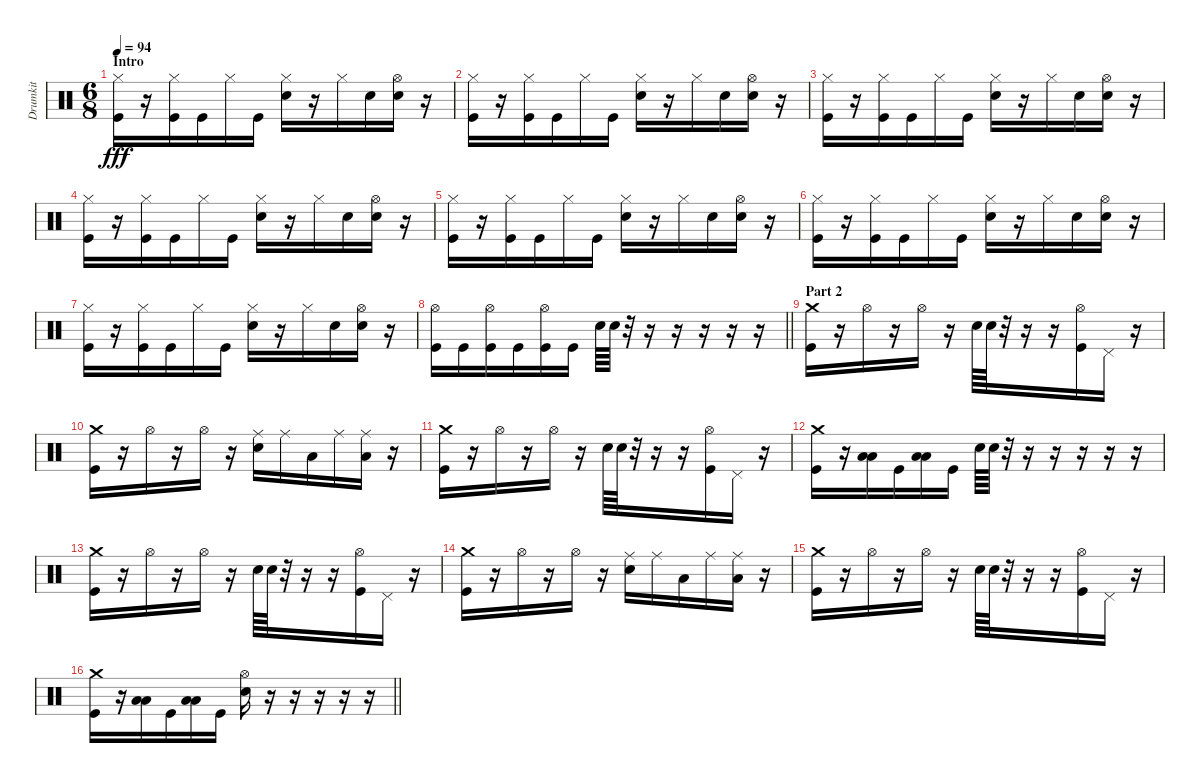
\track ("Drumkit" "Drumkit") {instrument percussion}
\staff {score}
\articulation defaults
\ts (6 8)
\section ("" "Intro")
\tempo 94
\clef neutral
\ks c
("Hi-Hat (closed)" "Kick (hit)").16{dy fff} r.16 ("Hi-Hat (closed)" "Kick (hit)").16 "Kick (hit)".16 "Hi-Hat (closed)".16 "Kick (hit)".16 ("Hi-Hat (closed)" "Snare (hit) 2").16 r.16 "Hi-Hat (closed)".16 "Snare (hit) 2".16 ("Hi-Hat (open)" "Snare (hit) 2").16 r.16 |
("Hi-Hat (closed)" "Kick (hit)").16 r.16 ("Hi-Hat (closed)" "Kick (hit)").16 "Kick (hit)".16 "Hi-Hat (closed)".16 "Kick (hit)".16 ("Hi-Hat (closed)" "Snare (hit) 2").16 r.16 "Hi-Hat (closed)".16 "Snare (hit) 2".16 ("Hi-Hat (open)" "Snare (hit) 2").16 r.16 |
("Hi-Hat (closed)" "Kick (hit)").16 r.16 ("Hi-Hat (closed)" "Kick (hit)").16 "Kick (hit)".16 "Hi-Hat (closed)".16 "Kick (hit)".16 ("Hi-Hat (closed)" "Snare (hit) 2").16 r.16 "Hi-Hat (closed)".16 "Snare (hit) 2".16 ("Hi-Hat (open)" "Snare (hit) 2").16 r.16 |
("Hi-Hat (closed)" "Kick (hit)").16 r.16 ("Hi-Hat (closed)" "Kick (hit)").16 "Kick (hit)".16 "Hi-Hat (closed)".16 "Kick (hit)".16 ("Hi-Hat (closed)" "Snare (hit) 2").16 r.16 "Hi-Hat (closed)".16 "Snare (hit) 2".16 ("Hi-Hat (open)" "Snare (hit) 2").16 r.16 |
("Hi-Hat (closed)" "Kick (hit)").16 r.16 ("Hi-Hat (closed)" "Kick (hit)").16 "Kick (hit)".16 "Hi-Hat (closed)".16 "Kick (hit)".16 ("Hi-Hat (closed)" "Snare (hit) 2").16 r.16 "Hi-Hat (closed)".16 "Snare (hit) 2".16 ("Hi-Hat (open)" "Snare (hit) 2").16 r.16 |
("Hi-Hat (closed)" "Kick (hit)").16 r.16 ("Hi-Hat (closed)" "Kick (hit)").16 "Kick (hit)".16 "Hi-Hat (closed)".16 "Kick (hit)".16 ("Hi-Hat (closed)" "Snare (hit) 2").16 r.16 "Hi-Hat (closed)".16 "Snare (hit) 2".16 ("Hi-Hat (open)" "Snare (hit) 2").16 r.16 |
("Hi-Hat (closed)" "Kick (hit)").16 r.16 ("Hi-Hat (closed)" "Kick (hit)").16 "Kick (hit)".16 "Hi-Hat (closed)".16 "Kick (hit)".16 ("Hi-Hat (closed)" "Snare (hit) 2").16 r.16 "Hi-Hat (closed)".16 "Snare (hit) 2".16 ("Hi-Hat (open)" "Snare (hit) 2").16 r.16 |
\barLineRight lightlight
("Hi-Hat (open)" "Kick (hit)").16 "Kick (hit)".16 ("Hi-Hat (open)" "Kick (hit)").16 "Kick (hit)".16 ("Hi-Hat (open)" "Kick (hit)").16 "Kick (hit)".16 "Snare (hit) 2".64 "Snare (hit) 2".64 r.32 r.16 r.16 r.16 r.16 r.16 |
\section ("" "Part 2")
("Crash medium (hit)" "Kick (hit)").16 r.16 "Hi-Hat (open)".16 r.16 "Hi-Hat (open)".16 r.16 "Snare (hit) 2".64 "Snare (hit) 2".64 r.32 r.16 r.16 ("Hi-Hat (open)" "Kick (hit)").16 "Pedal Hi-Hat (hit)".16 r.16 |
("Crash medium (hit)" "Kick (hit)").16 r.16 "Hi-Hat (open)".16 r.16 "Hi-Hat (open)".16 r.16 ("Ride (middle)" "Snare (hit) 2").16 "Ride (middle)".16 "Low Tom (hit)".16 "Ride (middle)".16 ("Ride (middle)" "Low Floor Tom (hit)").16 r.16 |
("Crash medium (hit)" "Kick (hit)").16 r.16 "Hi-Hat (open)".16 r.16 "Hi-Hat (open)".16 r.16 "Snare (hit) 2".64 "Snare (hit) 2".64 r.32 r.16 r.16 ("Hi-Hat (open)" "Kick (hit)").16 "Pedal Hi-Hat (hit)".16 r.16 |
("Crash medium (hit)" "Kick (hit)").16 r.16 ("Low Tom (hit)" "Low Floor Tom (hit)").16 "Kick (hit)".16 ("Low Tom (hit)" "Low Floor Tom (hit)").16 "Kick (hit)".16 "Snare (hit) 2".64 "Snare (hit) 2".64 r.32 r.16 r.16 r.16 r.16 r.16 |
("Crash medium (hit)" "Kick (hit)").16 r.16 "Hi-Hat (open)".16 r.16 "Hi-Hat (open)".16 r.16 "Snare (hit) 2".64 "Snare (hit) 2".64 r.32 r.16 r.16 ("Hi-Hat (open)" "Kick (hit)").16 "Pedal Hi-Hat (hit)".16 r.16 |
("Crash medium (hit)" "Kick (hit)").16 r.16 "Hi-Hat (open)".16 r.16 "Hi-Hat (open)".16 r.16 ("Ride (middle)" "Snare (hit) 2").16 "Ride (middle)".16 "Low Tom (hit)".16 "Ride (middle)".16 ("Ride (middle)" "Low Floor Tom (hit)").16 r.16 |
("Crash medium (hit)" "Kick (hit)").16 r.16 "Hi-Hat (open)".16 r.16 "Hi-Hat (open)".16 r.16 "Snare (hit) 2".64 "Snare (hit) 2".64 r.32 r.16 r.16 ("Hi-Hat (open)" "Kick (hit)").16 "Pedal Hi-Hat (hit)".16 r.16 |
\barLineRight lightlight
("Crash medium (hit)" "Kick (hit)").16 r.16 ("Low Tom (hit)" "Low Floor Tom (hit)").16 "Kick (hit)".16 ("Low Tom (hit)" "Low Floor Tom (hit)").16 "Kick (hit)".16 ("Hi-Hat (open)" "Snare (hit) 2").16 r.16 r.16 r.16 r.16 r.16
